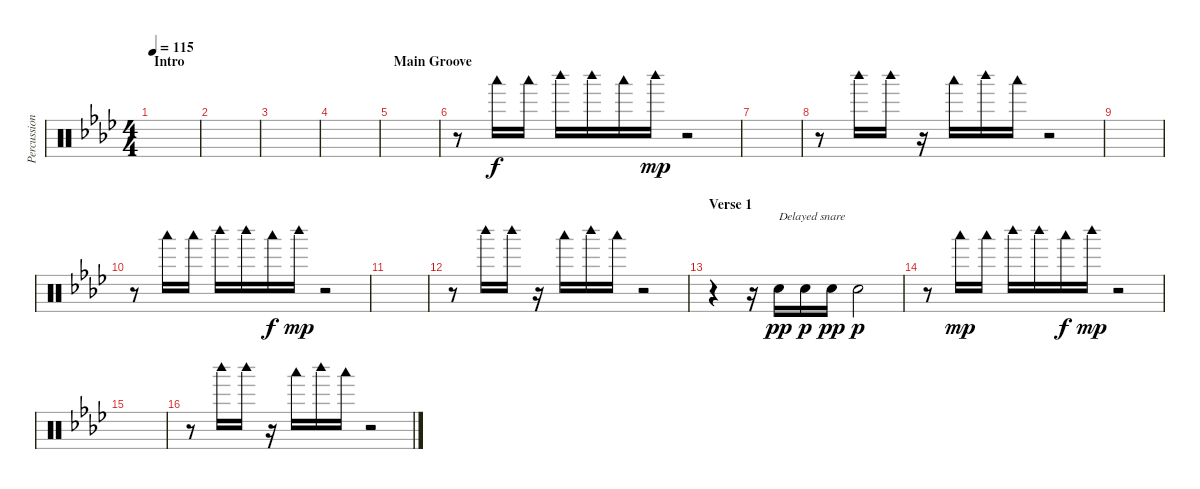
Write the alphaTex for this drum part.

\track ("Percussion" "Percussion") {instrument percussion}
\staff {score}
\articulation defaults
\ts (4 4)
\section ("" "Intro")
\tempo 115
\clef neutral
\ks ab
|
|
|
|
\section ("" "Main Groove")
|
r.8 "Woodblock low (hit)".16 "Woodblock low (hit)".16 "Woodblock high (hit)".16 "Woodblock high (hit)".16 "Woodblock low (hit)".16{dy f} "Woodblock high (hit)".16{dy mp} r.2 |
|
r.8 "Woodblock high (hit)".16 "Woodblock high (hit)".16 r.16 "Woodblock low (hit)".16 "Woodblock high (hit)".16 "Woodblock low (hit)".16 r.2 |
|
r.8 "Woodblock low (hit)".16 "Woodblock low (hit)".16 "Woodblock high (hit)".16 "Woodblock high (hit)".16 "Woodblock low (hit)".16{dy f} "Woodblock high (hit)".16{dy mp} r.2 |
|
r.8 "Woodblock high (hit)".16 "Woodblock high (hit)".16 r.16 "Woodblock low (hit)".16 "Woodblock high (hit)".16 "Woodblock low (hit)".16 r.2 |
\section ("" "Verse 1")
r.4 r.16 "Snare (hit) 2".16{txt "Delayed snare" dy pp} "Snare (hit) 2".16{dy p} "Snare (hit) 2".16{dy pp} "Snare (hit) 2".2{dy p} |
r.8 "Woodblock low (hit)".16{dy mp} "Woodblock low (hit)".16 "Woodblock high (hit)".16 "Woodblock high (hit)".16 "Woodblock low (hit)".16{dy f} "Woodblock high (hit)".16{dy mp} r.2 |
|
r.8 "Woodblock high (hit)".16 "Woodblock high (hit)".16 r.16 "Woodblock low (hit)".16 "Woodblock high (hit)".16 "Woodblock low (hit)".16 r.2
